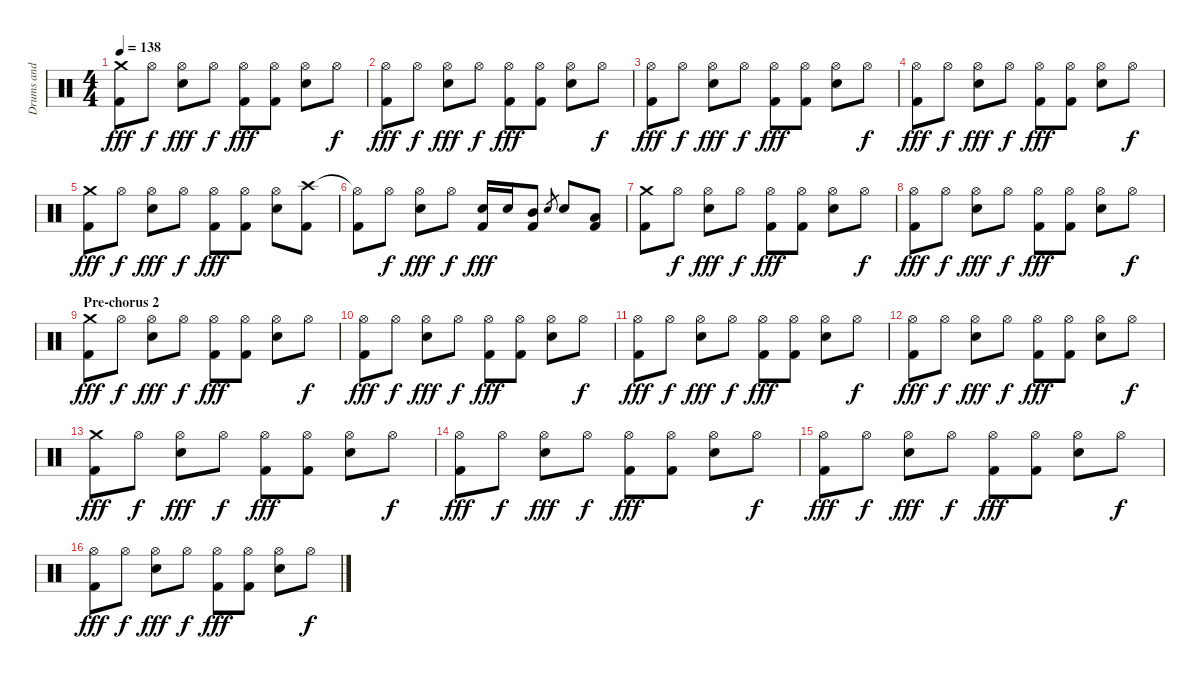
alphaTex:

\track ("Drums and Percussion" "Drums and ") {instrument percussion}
\staff {score}
\articulation defaults
\ts (4 4)
\tempo 138
\clef neutral
\ks c
("Crash medium (hit)" "Kick (hit) 2").8{dy fff} "Hi-Hat (open)".8{dy f} ("Hi-Hat (open)" "Snare (hit) 2").8{dy fff} "Hi-Hat (open)".8{dy f} ("Hi-Hat (open)" "Kick (hit) 2").8{dy fff} ("Hi-Hat (open)" "Kick (hit) 2").8 ("Hi-Hat (open)" "Snare (hit) 2").8 "Hi-Hat (open)".8{dy f} |
("Hi-Hat (open)" "Kick (hit) 2").8{dy fff} "Hi-Hat (open)".8{dy f} ("Hi-Hat (open)" "Snare (hit) 2").8{dy fff} "Hi-Hat (open)".8{dy f} ("Hi-Hat (open)" "Kick (hit) 2").8{dy fff} ("Hi-Hat (open)" "Kick (hit) 2").8 ("Hi-Hat (open)" "Snare (hit) 2").8 "Hi-Hat (open)".8{dy f} |
("Hi-Hat (open)" "Kick (hit) 2").8{dy fff} "Hi-Hat (open)".8{dy f} ("Hi-Hat (open)" "Snare (hit) 2").8{dy fff} "Hi-Hat (open)".8{dy f} ("Hi-Hat (open)" "Kick (hit) 2").8{dy fff} ("Hi-Hat (open)" "Kick (hit) 2").8 ("Hi-Hat (open)" "Snare (hit) 2").8 "Hi-Hat (open)".8{dy f} |
("Hi-Hat (open)" "Kick (hit) 2").8{dy fff} "Hi-Hat (open)".8{dy f} ("Hi-Hat (open)" "Snare (hit) 2").8{dy fff} "Hi-Hat (open)".8{dy f} ("Hi-Hat (open)" "Kick (hit) 2").8{dy fff} ("Hi-Hat (open)" "Kick (hit) 2").8 ("Hi-Hat (open)" "Snare (hit) 2").8 "Hi-Hat (open)".8{dy f} |
("Crash medium (hit)" "Kick (hit) 2").8{dy fff} "Hi-Hat (open)".8{dy f} ("Hi-Hat (open)" "Snare (hit) 2").8{dy fff} "Hi-Hat (open)".8{dy f} ("Hi-Hat (open)" "Kick (hit) 2").8{dy fff} ("Hi-Hat (open)" "Kick (hit) 2").8 ("Hi-Hat (open)" "Snare (hit) 2").8 ("Crash high (hit)" "Kick (hit) 2").8 |
("Hi-Hat (open)"{t} "Kick (hit) 2").8 "Hi-Hat (open)".8{dy f} ("Hi-Hat (open)" "Snare (hit) 2").8{dy fff} "Hi-Hat (open)".8{dy f} ("Snare (hit) 2" "Kick (hit) 2").16{dy fff} "Snare (hit) 2".16 ("Mid Tom (hit)" "Kick (hit) 2").8 "Snare (hit) 2".8{gr} "Snare (hit) 2".8 ("Low Tom (hit)" "Kick (hit) 2").8 |
("Crash medium (hit)" "Kick (hit) 2").8 "Hi-Hat (open)".8{dy f} ("Hi-Hat (open)" "Snare (hit) 2").8{dy fff} "Hi-Hat (open)".8{dy f} ("Hi-Hat (open)" "Kick (hit) 2").8{dy fff} ("Hi-Hat (open)" "Kick (hit) 2").8 ("Hi-Hat (open)" "Snare (hit) 2").8 "Hi-Hat (open)".8{dy f} |
("Hi-Hat (open)" "Kick (hit) 2").8{dy fff} "Hi-Hat (open)".8{dy f} ("Hi-Hat (open)" "Snare (hit) 2").8{dy fff} "Hi-Hat (open)".8{dy f} ("Hi-Hat (open)" "Kick (hit) 2").8{dy fff} ("Hi-Hat (open)" "Kick (hit) 2").8 ("Hi-Hat (open)" "Snare (hit) 2").8 "Hi-Hat (open)".8{dy f} |
\section ("" "Pre-chorus 2")
("Crash medium (hit)" "Kick (hit) 2").8{dy fff} "Hi-Hat (open)".8{dy f} ("Hi-Hat (open)" "Snare (hit) 2").8{dy fff} "Hi-Hat (open)".8{dy f} ("Hi-Hat (open)" "Kick (hit) 2").8{dy fff} ("Hi-Hat (open)" "Kick (hit) 2").8 ("Hi-Hat (open)" "Snare (hit) 2").8 "Hi-Hat (open)".8{dy f} |
("Hi-Hat (open)" "Kick (hit) 2").8{dy fff} "Hi-Hat (open)".8{dy f} ("Hi-Hat (open)" "Snare (hit) 2").8{dy fff} "Hi-Hat (open)".8{dy f} ("Hi-Hat (open)" "Kick (hit) 2").8{dy fff} ("Hi-Hat (open)" "Kick (hit) 2").8 ("Hi-Hat (open)" "Snare (hit) 2").8 "Hi-Hat (open)".8{dy f} |
("Hi-Hat (open)" "Kick (hit) 2").8{dy fff} "Hi-Hat (open)".8{dy f} ("Hi-Hat (open)" "Snare (hit) 2").8{dy fff} "Hi-Hat (open)".8{dy f} ("Hi-Hat (open)" "Kick (hit) 2").8{dy fff} ("Hi-Hat (open)" "Kick (hit) 2").8 ("Hi-Hat (open)" "Snare (hit) 2").8 "Hi-Hat (open)".8{dy f} |
("Hi-Hat (open)" "Kick (hit) 2").8{dy fff} "Hi-Hat (open)".8{dy f} ("Hi-Hat (open)" "Snare (hit) 2").8{dy fff} "Hi-Hat (open)".8{dy f} ("Hi-Hat (open)" "Kick (hit) 2").8{dy fff} ("Hi-Hat (open)" "Kick (hit) 2").8 ("Hi-Hat (open)" "Snare (hit) 2").8 "Hi-Hat (open)".8{dy f} |
("Crash medium (hit)" "Kick (hit) 2").8{dy fff} "Hi-Hat (open)".8{dy f} ("Hi-Hat (open)" "Snare (hit) 2").8{dy fff} "Hi-Hat (open)".8{dy f} ("Hi-Hat (open)" "Kick (hit) 2").8{dy fff} ("Hi-Hat (open)" "Kick (hit) 2").8 ("Hi-Hat (open)" "Snare (hit) 2").8 "Hi-Hat (open)".8{dy f} |
("Hi-Hat (open)" "Kick (hit) 2").8{dy fff} "Hi-Hat (open)".8{dy f} ("Hi-Hat (open)" "Snare (hit) 2").8{dy fff} "Hi-Hat (open)".8{dy f} ("Hi-Hat (open)" "Kick (hit) 2").8{dy fff} ("Hi-Hat (open)" "Kick (hit) 2").8 ("Hi-Hat (open)" "Snare (hit) 2").8 "Hi-Hat (open)".8{dy f} |
("Hi-Hat (open)" "Kick (hit) 2").8{dy fff} "Hi-Hat (open)".8{dy f} ("Hi-Hat (open)" "Snare (hit) 2").8{dy fff} "Hi-Hat (open)".8{dy f} ("Hi-Hat (open)" "Kick (hit) 2").8{dy fff} ("Hi-Hat (open)" "Kick (hit) 2").8 ("Hi-Hat (open)" "Snare (hit) 2").8 "Hi-Hat (open)".8{dy f} |
("Hi-Hat (open)" "Kick (hit) 2").8{dy fff} "Hi-Hat (open)".8{dy f} ("Hi-Hat (open)" "Snare (hit) 2").8{dy fff} "Hi-Hat (open)".8{dy f} ("Hi-Hat (open)" "Kick (hit) 2").8{dy fff} ("Hi-Hat (open)" "Kick (hit) 2").8 ("Hi-Hat (open)" "Snare (hit) 2").8 "Hi-Hat (open)".8{dy f}
